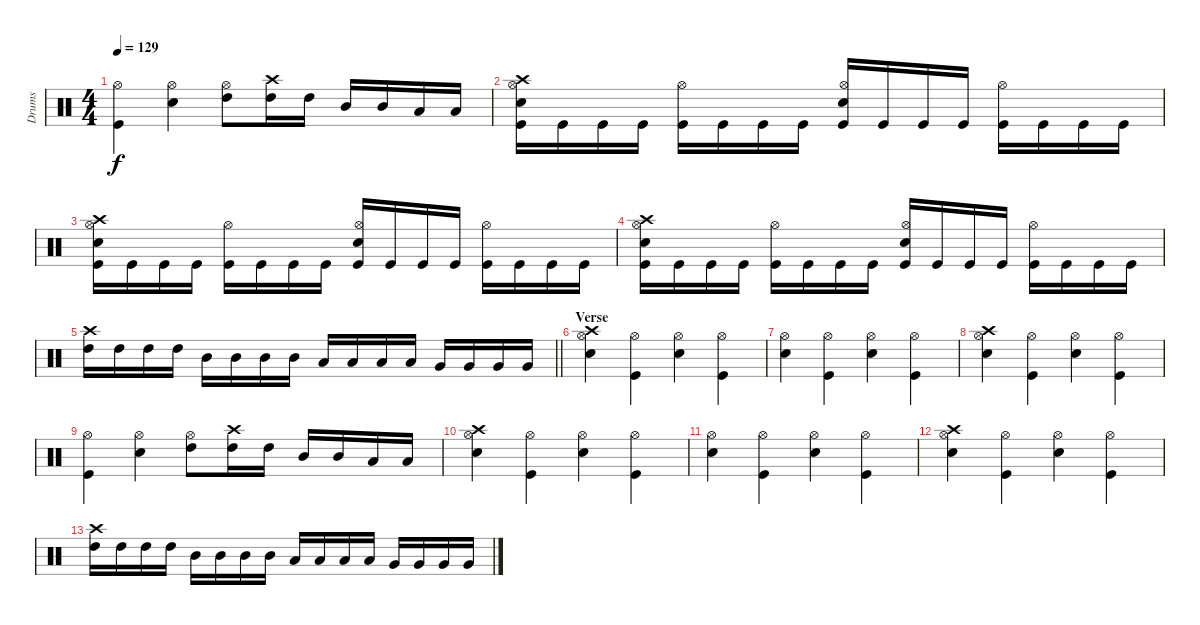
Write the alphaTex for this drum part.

\track ("Drums" "Drums") {instrument percussion}
\staff {score}
\articulation defaults
\ts (4 4)
\tempo 129
\clef neutral
\ks c
("Kick (hit)" "Hi-Hat (open)").4{dy f} ("Snare (hit) 2" "Hi-Hat (open)").4 ("High Tom (hit)" "Hi-Hat (open)").8 ("Crash high (hit)" "High Tom (hit)").16 "High Tom (hit)".16 "Mid Tom (hit)".16 "Mid Tom (hit)".16 "Low Tom (hit)".16 "Low Tom (hit)".16 |
("Crash high (hit)" "Snare (hit) 2" "Hi-Hat (open)" "Kick (hit)").16 "Kick (hit)".16 "Kick (hit)".16 "Kick (hit)".16 ("Hi-Hat (open)" "Kick (hit)").16 "Kick (hit)".16 "Kick (hit)".16 "Kick (hit)".16 ("Snare (hit) 2" "Hi-Hat (open)" "Kick (hit)").16 "Kick (hit)".16 "Kick (hit)".16 "Kick (hit)".16 ("Hi-Hat (open)" "Kick (hit)").16 "Kick (hit)".16 "Kick (hit)".16 "Kick (hit)".16 |
("Crash high (hit)" "Snare (hit) 2" "Hi-Hat (open)" "Kick (hit)").16 "Kick (hit)".16 "Kick (hit)".16 "Kick (hit)".16 ("Hi-Hat (open)" "Kick (hit)").16 "Kick (hit)".16 "Kick (hit)".16 "Kick (hit)".16 ("Snare (hit) 2" "Hi-Hat (open)" "Kick (hit)").16 "Kick (hit)".16 "Kick (hit)".16 "Kick (hit)".16 ("Hi-Hat (open)" "Kick (hit)").16 "Kick (hit)".16 "Kick (hit)".16 "Kick (hit)".16 |
("Crash high (hit)" "Snare (hit) 2" "Hi-Hat (open)" "Kick (hit)").16 "Kick (hit)".16 "Kick (hit)".16 "Kick (hit)".16 ("Hi-Hat (open)" "Kick (hit)").16 "Kick (hit)".16 "Kick (hit)".16 "Kick (hit)".16 ("Snare (hit) 2" "Hi-Hat (open)" "Kick (hit)").16 "Kick (hit)".16 "Kick (hit)".16 "Kick (hit)".16 ("Hi-Hat (open)" "Kick (hit)").16 "Kick (hit)".16 "Kick (hit)".16 "Kick (hit)".16 |
\barLineRight lightlight
("Crash high (hit)" "High Tom (hit)").16 "High Tom (hit)".16 "High Tom (hit)".16 "High Tom (hit)".16 "Mid Tom (hit)".16 "Mid Tom (hit)".16 "Mid Tom (hit)".16 "Mid Tom (hit)".16 "Low Tom (hit)".16 "Low Tom (hit)".16 "Low Tom (hit)".16 "Low Tom (hit)".16 "Very Low Tom (hit)".16 "Very Low Tom (hit)".16 "Very Low Tom (hit)".16 "Very Low Tom (hit)".16 |
\section ("" "Verse")
("Crash high (hit)" "Snare (hit) 2" "Hi-Hat (open)").4 ("Kick (hit)" "Hi-Hat (open)").4 ("Snare (hit) 2" "Hi-Hat (open)").4 ("Kick (hit)" "Hi-Hat (open)").4 |
("Snare (hit) 2" "Hi-Hat (open)").4 ("Kick (hit)" "Hi-Hat (open)").4 ("Snare (hit) 2" "Hi-Hat (open)").4 ("Kick (hit)" "Hi-Hat (open)").4 |
("Crash high (hit)" "Snare (hit) 2" "Hi-Hat (open)").4 ("Kick (hit)" "Hi-Hat (open)").4 ("Snare (hit) 2" "Hi-Hat (open)").4 ("Kick (hit)" "Hi-Hat (open)").4 |
("Kick (hit)" "Hi-Hat (open)").4 ("Snare (hit) 2" "Hi-Hat (open)").4 ("High Tom (hit)" "Hi-Hat (open)").8 ("Crash high (hit)" "High Tom (hit)").16 "High Tom (hit)".16 "Mid Tom (hit)".16 "Mid Tom (hit)".16 "Low Tom (hit)".16 "Low Tom (hit)".16 |
("Crash high (hit)" "Snare (hit) 2" "Hi-Hat (open)").4 ("Kick (hit)" "Hi-Hat (open)").4 ("Snare (hit) 2" "Hi-Hat (open)").4 ("Kick (hit)" "Hi-Hat (open)").4 |
("Snare (hit) 2" "Hi-Hat (open)").4 ("Kick (hit)" "Hi-Hat (open)").4 ("Snare (hit) 2" "Hi-Hat (open)").4 ("Kick (hit)" "Hi-Hat (open)").4 |
("Crash high (hit)" "Snare (hit) 2" "Hi-Hat (open)").4 ("Kick (hit)" "Hi-Hat (open)").4 ("Snare (hit) 2" "Hi-Hat (open)").4 ("Kick (hit)" "Hi-Hat (open)").4 |
("Crash high (hit)" "High Tom (hit)").16 "High Tom (hit)".16 "High Tom (hit)".16 "High Tom (hit)".16 "Mid Tom (hit)".16 "Mid Tom (hit)".16 "Mid Tom (hit)".16 "Mid Tom (hit)".16 "Low Tom (hit)".16 "Low Tom (hit)".16 "Low Tom (hit)".16 "Low Tom (hit)".16 "Very Low Tom (hit)".16 "Very Low Tom (hit)".16 "Very Low Tom (hit)".16 "Very Low Tom (hit)".16
